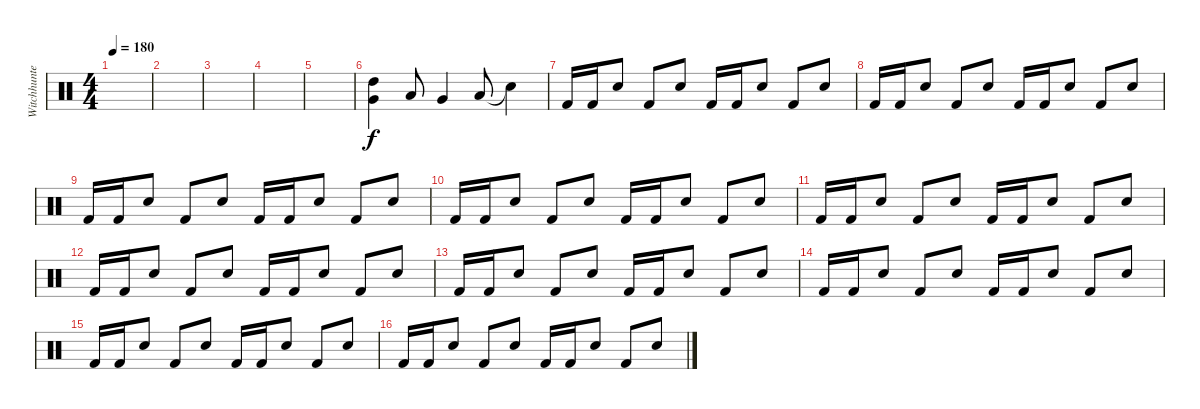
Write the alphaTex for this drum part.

\track ("Witchhunter (Drums)" "Witchhunte") {instrument percussion}
\staff {score}
\articulation defaults
\ts (4 4)
\tempo 180
\clef neutral
\ks c
|
|
|
|
|
("High Tom (hit)" "Very Low Tom (hit)").4 "Low Tom (hit)".8 "Very Low Tom (hit)".4 "Low Tom (hit)".8 "Snare (hit)"{t}.4 |
"Kick (hit) 2".16 "Kick (hit) 2".16 "Snare (hit) 2".8 "Kick (hit) 2".8 "Snare (hit) 2".8 "Kick (hit) 2".16 "Kick (hit) 2".16 "Snare (hit) 2".8 "Kick (hit) 2".8 "Snare (hit) 2".8 |
"Kick (hit) 2".16 "Kick (hit) 2".16 "Snare (hit) 2".8 "Kick (hit) 2".8 "Snare (hit) 2".8 "Kick (hit) 2".16 "Kick (hit) 2".16 "Snare (hit) 2".8 "Kick (hit) 2".8 "Snare (hit) 2".8 |
"Kick (hit) 2".16 "Kick (hit) 2".16 "Snare (hit) 2".8 "Kick (hit) 2".8 "Snare (hit) 2".8 "Kick (hit) 2".16 "Kick (hit) 2".16 "Snare (hit) 2".8 "Kick (hit) 2".8 "Snare (hit) 2".8 |
"Kick (hit) 2".16 "Kick (hit) 2".16 "Snare (hit) 2".8 "Kick (hit) 2".8 "Snare (hit) 2".8 "Kick (hit) 2".16 "Kick (hit) 2".16 "Snare (hit) 2".8 "Kick (hit) 2".8 "Snare (hit) 2".8 |
"Kick (hit) 2".16 "Kick (hit) 2".16 "Snare (hit) 2".8 "Kick (hit) 2".8 "Snare (hit) 2".8 "Kick (hit) 2".16 "Kick (hit) 2".16 "Snare (hit) 2".8 "Kick (hit) 2".8 "Snare (hit) 2".8 |
"Kick (hit) 2".16 "Kick (hit) 2".16 "Snare (hit) 2".8 "Kick (hit) 2".8 "Snare (hit) 2".8 "Kick (hit) 2".16 "Kick (hit) 2".16 "Snare (hit) 2".8 "Kick (hit) 2".8 "Snare (hit) 2".8 |
"Kick (hit) 2".16 "Kick (hit) 2".16 "Snare (hit) 2".8 "Kick (hit) 2".8 "Snare (hit) 2".8 "Kick (hit) 2".16 "Kick (hit) 2".16 "Snare (hit) 2".8 "Kick (hit) 2".8 "Snare (hit) 2".8 |
"Kick (hit) 2".16 "Kick (hit) 2".16 "Snare (hit) 2".8 "Kick (hit) 2".8 "Snare (hit) 2".8 "Kick (hit) 2".16 "Kick (hit) 2".16 "Snare (hit) 2".8 "Kick (hit) 2".8 "Snare (hit) 2".8 |
"Kick (hit) 2".16 "Kick (hit) 2".16 "Snare (hit) 2".8 "Kick (hit) 2".8 "Snare (hit) 2".8 "Kick (hit) 2".16 "Kick (hit) 2".16 "Snare (hit) 2".8 "Kick (hit) 2".8 "Snare (hit) 2".8 |
"Kick (hit) 2".16 "Kick (hit) 2".16 "Snare (hit) 2".8 "Kick (hit) 2".8 "Snare (hit) 2".8 "Kick (hit) 2".16 "Kick (hit) 2".16 "Snare (hit) 2".8 "Kick (hit) 2".8 "Snare (hit) 2".8
